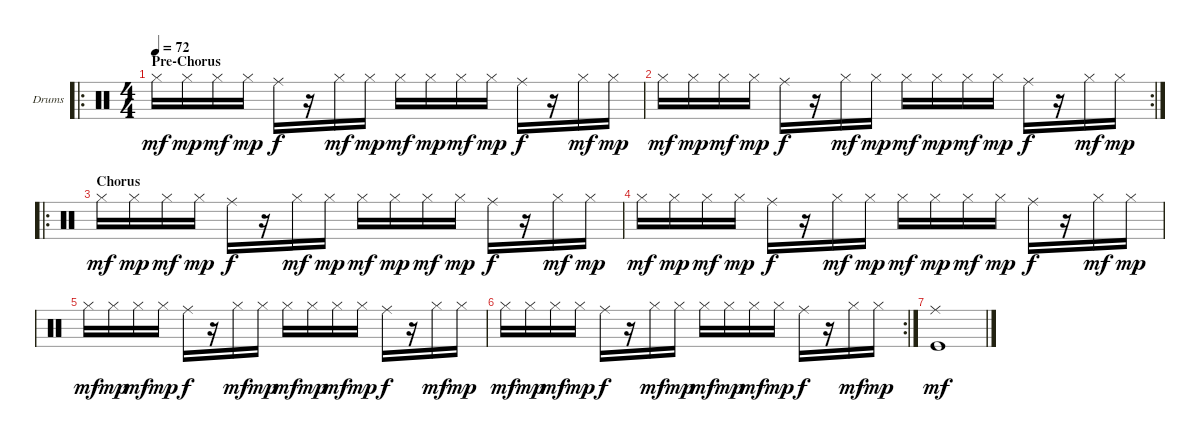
\defaultSystemsLayout 4
\bracketExtendMode groupsimilarinstruments
\firstSystemTrackNameOrientation horizontal
\otherSystemsTrackNameOrientation horizontal
\track ("Drums" "Drums") {instrument percussion}
\staff {score}
\articulation defaults
\ro
\ts (4 4)
\section ("" "Pre-Chorus")
\tempo 72
\clef neutral
\ks c "Hi-Hat (closed)".16{dy mf} "Hi-Hat (closed)".16{dy mp} "Hi-Hat (closed)".16{dy mf} "Hi-Hat (closed)".16{dy mp} "Ride (middle)".16{dy f}
r.16 "Hi-Hat (closed)".16{dy mf} "Hi-Hat (closed)".16{dy mp} "Hi-Hat (closed)".16{dy mf} "Hi-Hat (closed)".16{dy mp} "Hi-Hat (closed)".16{dy mf} "Hi-Hat (closed)".16{dy mp} "Ride (middle)".16{dy f} r.16 "Hi-Hat (closed)".16{dy mf} "Hi-Hat (closed)".16{dy mp} |
\rc 2 "Hi-Hat (closed)".16{dy mf} "Hi-Hat (closed)".16{dy mp} "Hi-Hat (closed)".16{dy mf} "Hi-Hat (closed)".16{dy mp} "Ride (middle)".16{dy f}
r.16 "Hi-Hat (closed)".16{dy mf} "Hi-Hat (closed)".16{dy mp} "Hi-Hat (closed)".16{dy mf} "Hi-Hat (closed)".16{dy mp} "Hi-Hat (closed)".16{dy mf} "Hi-Hat (closed)".16{dy mp} "Ride (middle)".16{dy f} r.16 "Hi-Hat (closed)".16{dy mf} "Hi-Hat (closed)".16{dy mp} |
\ro
\section ("" "Chorus")
"Hi-Hat (closed)".16{dy mf} "Hi-Hat (closed)".16{dy mp} "Hi-Hat (closed)".16{dy mf} "Hi-Hat (closed)".16{dy mp} "Ride (middle)".16{dy f} r.16 "Hi-Hat (closed)".16{dy mf} "Hi-Hat (closed)".16{dy mp} "Hi-Hat (closed)".16{dy mf} "Hi-Hat (closed)".16{dy mp} "Hi-Hat (closed)".16{dy mf} "Hi-Hat (closed)".16{dy mp} "Ride (middle)".16{dy f} r.16 "Hi-Hat (closed)".16{dy mf} "Hi-Hat (closed)".16{dy mp} |
"Hi-Hat (closed)".16{dy mf} "Hi-Hat (closed)".16{dy mp} "Hi-Hat (closed)".16{dy mf} "Hi-Hat (closed)".16{dy mp} "Ride (middle)".16{dy f} r.16 "Hi-Hat (closed)".16{dy mf} "Hi-Hat (closed)".16{dy mp} "Hi-Hat (closed)".16{dy mf} "Hi-Hat (closed)".16{dy mp} "Hi-Hat (closed)".16{dy mf} "Hi-Hat (closed)".16{dy mp} "Ride (middle)".16{dy f} r.16 "Hi-Hat (closed)".16{dy mf} "Hi-Hat (closed)".16{dy mp} |
"Hi-Hat (closed)".16{dy mf} "Hi-Hat (closed)".16{dy mp} "Hi-Hat (closed)".16{dy mf} "Hi-Hat (closed)".16{dy mp} "Ride (middle)".16{dy f} r.16 "Hi-Hat (closed)".16{dy mf} "Hi-Hat (closed)".16{dy mp} "Hi-Hat (closed)".16{dy mf} "Hi-Hat (closed)".16{dy mp} "Hi-Hat (closed)".16{dy mf} "Hi-Hat (closed)".16{dy mp} "Ride (middle)".16{dy f} r.16 "Hi-Hat (closed)".16{dy mf} "Hi-Hat (closed)".16{dy mp} |
\rc 2 "Hi-Hat (closed)".16{dy mf} "Hi-Hat (closed)".16{dy mp} "Hi-Hat (closed)".16{dy mf} "Hi-Hat (closed)".16{dy mp} "Ride (middle)".16{dy f}
r.16 "Hi-Hat (closed)".16{dy mf} "Hi-Hat (closed)".16{dy mp} "Hi-Hat (closed)".16{dy mf} "Hi-Hat (closed)".16{dy mp} "Hi-Hat (closed)".16{dy mf} "Hi-Hat (closed)".16{dy mp} "Ride (middle)".16{dy f} r.16 "Hi-Hat (closed)".16{dy mf} "Hi-Hat (closed)".16{dy mp} |
("Ride (middle)" "Kick (hit)").1{dy mf}
